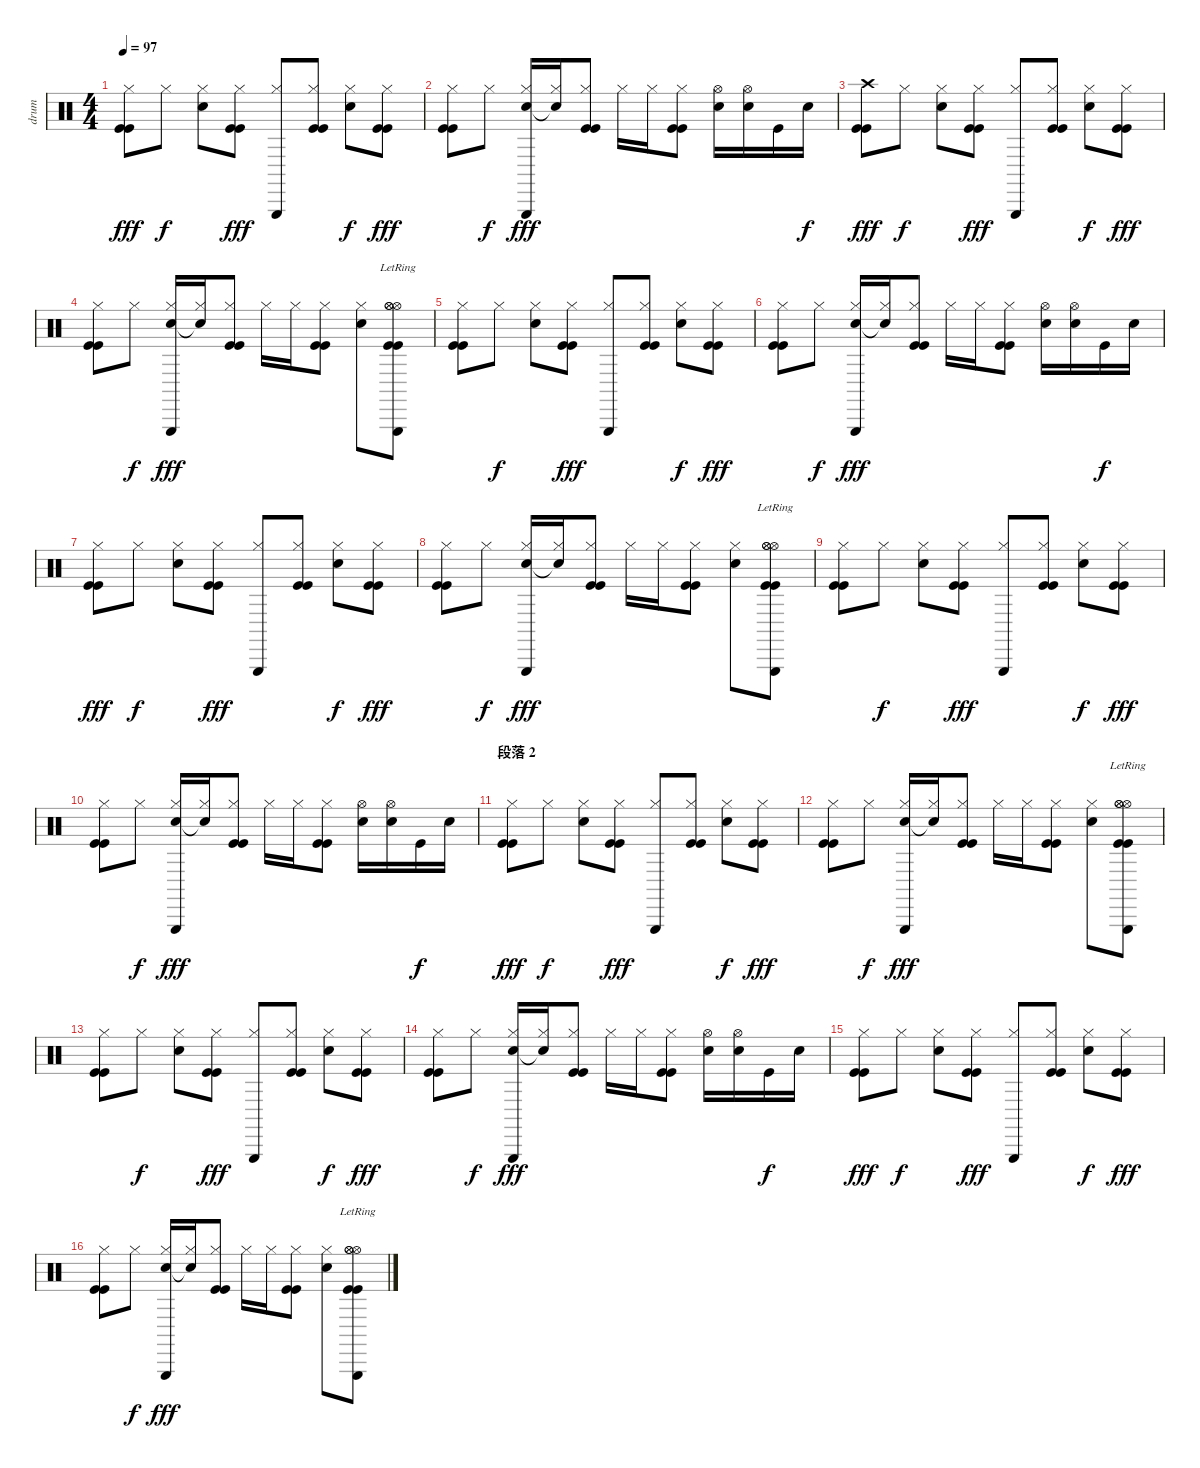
\track ("drum" "drum") {instrument percussion}
\staff {score}
\articulation defaults
\ts (4 4)
\tempo 97
\clef neutral
\ks c
("Hi-Hat (closed)" "Kick (hit)" "Kick (hit)").8{dy fff} "Hi-Hat (closed)".8{dy f} ("Hi-Hat (closed)" "Electric Snare (hit)").8 ("Hi-Hat (closed)" "Kick (hit)" "Kick (hit)").8{dy fff} ("Hi-Hat (closed)" "Triangle (hit)").8 ("Hi-Hat (closed)" "Kick (hit)" "Kick (hit)").8 ("Hi-Hat (closed)" "Electric Snare (hit)").8{dy f} ("Hi-Hat (closed)" "Kick (hit)" "Kick (hit)").8{dy fff} |
("Hi-Hat (closed)" "Kick (hit)" "Kick (hit)").8 "Hi-Hat (closed)".8{dy f} ("Hi-Hat (closed)" "Electric Snare (hit)" "Triangle (hit)").16{dy fff} ("Hi-Hat (closed)" "Snare (hit)"{t}).16 ("Hi-Hat (closed)" "Kick (hit)" "Kick (hit)").8 "Hi-Hat (closed)".16 "Hi-Hat (closed)".16 ("Hi-Hat (closed)" "Kick (hit)" "Kick (hit)").8 ("Hi-Hat (open)" "Electric Snare (hit)").16 ("Hi-Hat (open)" "Electric Snare (hit)").16 "Kick (hit)".16 "Electric Snare (hit)".16{dy f} |
("Crash high (hit)" "Kick (hit)" "Kick (hit)").8{dy fff} "Hi-Hat (closed)".8{dy f} ("Hi-Hat (closed)" "Electric Snare (hit)").8 ("Hi-Hat (closed)" "Kick (hit)" "Kick (hit)").8{dy fff} ("Hi-Hat (closed)" "Triangle (hit)").8 ("Hi-Hat (closed)" "Kick (hit)" "Kick (hit)").8 ("Hi-Hat (closed)" "Electric Snare (hit)").8{dy f} ("Hi-Hat (closed)" "Kick (hit)" "Kick (hit)").8{dy fff} |
("Hi-Hat (closed)" "Kick (hit)" "Kick (hit)").8 "Hi-Hat (closed)".8{dy f} ("Hi-Hat (closed)" "Electric Snare (hit)" "Triangle (hit)").16{dy fff} ("Hi-Hat (closed)" "Snare (hit)"{t}).16 ("Hi-Hat (closed)" "Kick (hit)" "Kick (hit)").8 "Hi-Hat (closed)".16 "Hi-Hat (closed)".16 ("Hi-Hat (closed)" "Kick (hit)" "Kick (hit)").8 ("Hi-Hat (closed)" "Electric Snare (hit)").8 ("Hi-Hat (open)" "Hi-Hat (open)" "Hi-Hat (open)" "Triangle (hit)"{lr} "Kick (hit)" "Kick (hit)").8 |
("Hi-Hat (closed)" "Kick (hit)" "Kick (hit)").8 "Hi-Hat (closed)".8{dy f} ("Hi-Hat (closed)" "Electric Snare (hit)").8 ("Hi-Hat (closed)" "Kick (hit)" "Kick (hit)").8{dy fff} ("Hi-Hat (closed)" "Triangle (hit)").8 ("Hi-Hat (closed)" "Kick (hit)" "Kick (hit)").8 ("Hi-Hat (closed)" "Electric Snare (hit)").8{dy f} ("Hi-Hat (closed)" "Kick (hit)" "Kick (hit)").8{dy fff} |
("Hi-Hat (closed)" "Kick (hit)" "Kick (hit)").8 "Hi-Hat (closed)".8{dy f} ("Hi-Hat (closed)" "Electric Snare (hit)" "Triangle (hit)").16{dy fff} ("Hi-Hat (closed)" "Snare (hit)"{t}).16 ("Hi-Hat (closed)" "Kick (hit)" "Kick (hit)").8 "Hi-Hat (closed)".16 "Hi-Hat (closed)".16 ("Hi-Hat (closed)" "Kick (hit)" "Kick (hit)").8 ("Hi-Hat (open)" "Electric Snare (hit)").16 ("Hi-Hat (open)" "Electric Snare (hit)").16 "Kick (hit)".16{dy f} "Electric Snare (hit)".16 |
("Hi-Hat (closed)" "Kick (hit)" "Kick (hit)").8{dy fff} "Hi-Hat (closed)".8{dy f} ("Hi-Hat (closed)" "Electric Snare (hit)").8 ("Hi-Hat (closed)" "Kick (hit)" "Kick (hit)").8{dy fff} ("Hi-Hat (closed)" "Triangle (hit)").8 ("Hi-Hat (closed)" "Kick (hit)" "Kick (hit)").8 ("Hi-Hat (closed)" "Electric Snare (hit)").8{dy f} ("Hi-Hat (closed)" "Kick (hit)" "Kick (hit)").8{dy fff} |
("Hi-Hat (closed)" "Kick (hit)" "Kick (hit)").8 "Hi-Hat (closed)".8{dy f} ("Hi-Hat (closed)" "Electric Snare (hit)" "Triangle (hit)").16{dy fff} ("Hi-Hat (closed)" "Snare (hit)"{t}).16 ("Hi-Hat (closed)" "Kick (hit)" "Kick (hit)").8 "Hi-Hat (closed)".16 "Hi-Hat (closed)".16 ("Hi-Hat (closed)" "Kick (hit)" "Kick (hit)").8 ("Hi-Hat (closed)" "Electric Snare (hit)").8 ("Hi-Hat (open)" "Hi-Hat (open)" "Hi-Hat (open)" "Triangle (hit)"{lr} "Kick (hit)" "Kick (hit)").8 |
("Hi-Hat (closed)" "Kick (hit)" "Kick (hit)").8 "Hi-Hat (closed)".8{dy f} ("Hi-Hat (closed)" "Electric Snare (hit)").8 ("Hi-Hat (closed)" "Kick (hit)" "Kick (hit)").8{dy fff} ("Hi-Hat (closed)" "Triangle (hit)").8 ("Hi-Hat (closed)" "Kick (hit)" "Kick (hit)").8 ("Hi-Hat (closed)" "Electric Snare (hit)").8{dy f} ("Hi-Hat (closed)" "Kick (hit)" "Kick (hit)").8{dy fff} |
("Hi-Hat (closed)" "Kick (hit)" "Kick (hit)").8 "Hi-Hat (closed)".8{dy f} ("Hi-Hat (closed)" "Electric Snare (hit)" "Triangle (hit)").16{dy fff} ("Hi-Hat (closed)" "Snare (hit)"{t}).16 ("Hi-Hat (closed)" "Kick (hit)" "Kick (hit)").8 "Hi-Hat (closed)".16 "Hi-Hat (closed)".16 ("Hi-Hat (closed)" "Kick (hit)" "Kick (hit)").8 ("Hi-Hat (open)" "Electric Snare (hit)").16 ("Hi-Hat (open)" "Electric Snare (hit)").16 "Kick (hit)".16{dy f} "Electric Snare (hit)".16 |
\section ("" "段落 2")
("Hi-Hat (closed)" "Kick (hit)" "Kick (hit)").8{dy fff} "Hi-Hat (closed)".8{dy f} ("Hi-Hat (closed)" "Electric Snare (hit)").8 ("Hi-Hat (closed)" "Kick (hit)" "Kick (hit)").8{dy fff} ("Hi-Hat (closed)" "Triangle (hit)").8 ("Hi-Hat (closed)" "Kick (hit)" "Kick (hit)").8 ("Hi-Hat (closed)" "Electric Snare (hit)").8{dy f} ("Hi-Hat (closed)" "Kick (hit)" "Kick (hit)").8{dy fff} |
("Hi-Hat (closed)" "Kick (hit)" "Kick (hit)").8 "Hi-Hat (closed)".8{dy f} ("Hi-Hat (closed)" "Electric Snare (hit)" "Triangle (hit)").16{dy fff} ("Hi-Hat (closed)" "Snare (hit)"{t}).16 ("Hi-Hat (closed)" "Kick (hit)" "Kick (hit)").8 "Hi-Hat (closed)".16 "Hi-Hat (closed)".16 ("Hi-Hat (closed)" "Kick (hit)" "Kick (hit)").8 ("Hi-Hat (closed)" "Electric Snare (hit)").8 ("Hi-Hat (open)" "Hi-Hat (open)" "Hi-Hat (open)" "Triangle (hit)"{lr} "Kick (hit)" "Kick (hit)").8 |
("Hi-Hat (closed)" "Kick (hit)" "Kick (hit)").8 "Hi-Hat (closed)".8{dy f} ("Hi-Hat (closed)" "Electric Snare (hit)").8 ("Hi-Hat (closed)" "Kick (hit)" "Kick (hit)").8{dy fff} ("Hi-Hat (closed)" "Triangle (hit)").8 ("Hi-Hat (closed)" "Kick (hit)" "Kick (hit)").8 ("Hi-Hat (closed)" "Electric Snare (hit)").8{dy f} ("Hi-Hat (closed)" "Kick (hit)" "Kick (hit)").8{dy fff} |
("Hi-Hat (closed)" "Kick (hit)" "Kick (hit)").8 "Hi-Hat (closed)".8{dy f} ("Hi-Hat (closed)" "Electric Snare (hit)" "Triangle (hit)").16{dy fff} ("Hi-Hat (closed)" "Snare (hit)"{t}).16 ("Hi-Hat (closed)" "Kick (hit)" "Kick (hit)").8 "Hi-Hat (closed)".16 "Hi-Hat (closed)".16 ("Hi-Hat (closed)" "Kick (hit)" "Kick (hit)").8 ("Hi-Hat (open)" "Electric Snare (hit)").16 ("Hi-Hat (open)" "Electric Snare (hit)").16 "Kick (hit)".16{dy f} "Electric Snare (hit)".16 |
("Hi-Hat (closed)" "Kick (hit)" "Kick (hit)").8{dy fff} "Hi-Hat (closed)".8{dy f} ("Hi-Hat (closed)" "Electric Snare (hit)").8 ("Hi-Hat (closed)" "Kick (hit)" "Kick (hit)").8{dy fff} ("Hi-Hat (closed)" "Triangle (hit)").8 ("Hi-Hat (closed)" "Kick (hit)" "Kick (hit)").8 ("Hi-Hat (closed)" "Electric Snare (hit)").8{dy f} ("Hi-Hat (closed)" "Kick (hit)" "Kick (hit)").8{dy fff} |
("Hi-Hat (closed)" "Kick (hit)" "Kick (hit)").8 "Hi-Hat (closed)".8{dy f} ("Hi-Hat (closed)" "Electric Snare (hit)" "Triangle (hit)").16{dy fff} ("Hi-Hat (closed)" "Snare (hit)"{t}).16 ("Hi-Hat (closed)" "Kick (hit)" "Kick (hit)").8 "Hi-Hat (closed)".16 "Hi-Hat (closed)".16 ("Hi-Hat (closed)" "Kick (hit)" "Kick (hit)").8 ("Hi-Hat (closed)" "Electric Snare (hit)").8 ("Hi-Hat (open)" "Hi-Hat (open)" "Hi-Hat (open)" "Triangle (hit)"{lr} "Kick (hit)" "Kick (hit)").8
